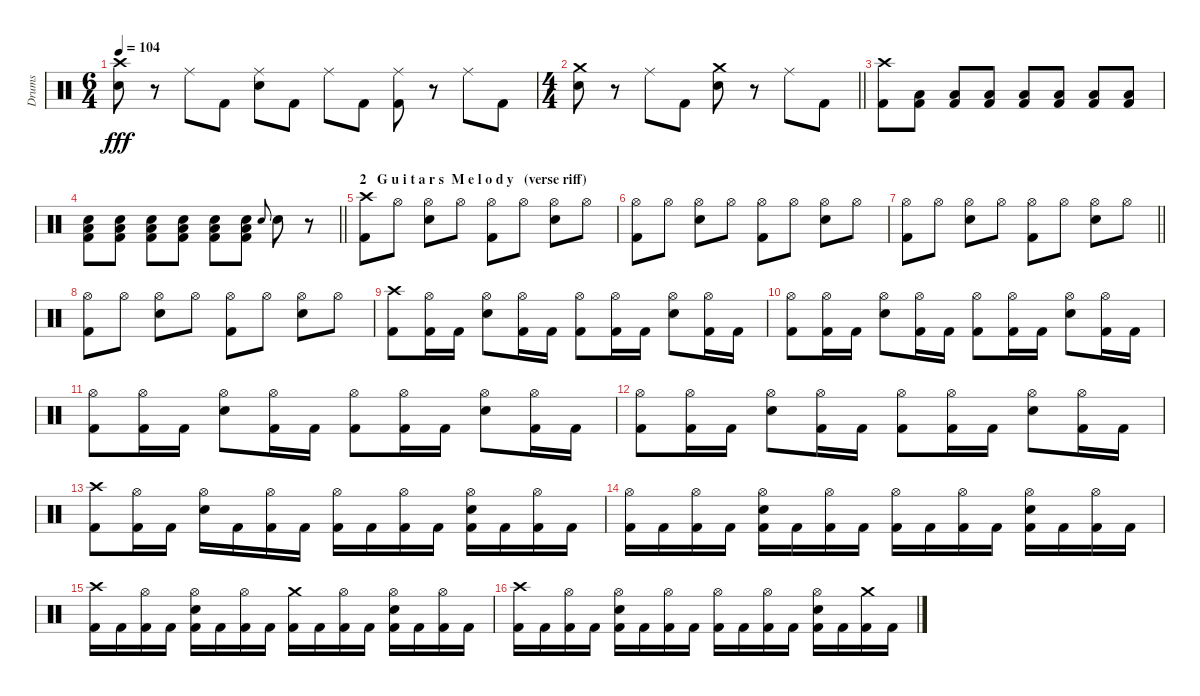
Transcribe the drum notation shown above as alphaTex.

\track ("Drums" "Drums") {instrument percussion}
\staff {score}
\articulation defaults
\ts (6 4)
\tempo 104
\clef neutral
\ks c
("Crash high (hit)" "Snare (hit) 2").8{dy fff} r.8 "Ride (middle)".8 "Kick (hit) 2".8 ("Ride (middle)" "Snare (hit) 2").8 "Kick (hit) 2".8 "Ride (middle)".8 "Kick (hit) 2".8 ("Ride (middle)" "Kick (hit) 2").8 r.8 "Ride (middle)".8 "Kick (hit) 2".8 |
\ts (4 4)
\barLineRight lightlight
("Crash medium (hit)" "Snare (hit) 2").8 r.8 "Ride (middle)".8 "Kick (hit) 2".8 ("Crash medium (hit)" "Snare (hit) 2").8 r.8 "Ride (middle)".8 "Kick (hit) 2".8 |
("Crash high (hit)" "Kick (hit) 2").8 ("Low Tom (hit)" "Kick (hit) 2").8 ("Low Tom (hit)" "Kick (hit) 2").8 ("Low Tom (hit)" "Kick (hit) 2").8 ("Low Tom (hit)" "Kick (hit) 2").8 ("Low Tom (hit)" "Kick (hit) 2").8 ("Low Tom (hit)" "Kick (hit) 2").8 ("Low Tom (hit)" "Kick (hit) 2").8 |
\barLineRight lightlight
("Snare (hit) 2" "Low Tom (hit)" "Kick (hit) 2").8 ("Snare (hit) 2" "Low Tom (hit)" "Kick (hit) 2").8 ("Snare (hit) 2" "Low Tom (hit)" "Kick (hit) 2").8 ("Snare (hit) 2" "Low Tom (hit)" "Kick (hit) 2").8 ("Snare (hit) 2" "Low Tom (hit)" "Kick (hit) 2").8 ("Snare (hit) 2" "Low Tom (hit)" "Kick (hit) 2").8 "Snare (hit) 2".8{gr onbeat} "Snare (hit) 2".8 r.8 |
\section ("" "2   G u i t a r s  M e l o d y   (verse riff)")
("Crash high (hit)" "Kick (hit) 2").8 "Hi-Hat (open)".8 ("Hi-Hat (open)" "Snare (hit) 2").8 "Hi-Hat (open)".8 ("Hi-Hat (open)" "Kick (hit) 2").8 "Hi-Hat (open)".8 ("Hi-Hat (open)" "Snare (hit) 2").8 "Hi-Hat (open)".8 |
("Hi-Hat (open)" "Kick (hit) 2").8 "Hi-Hat (open)".8 ("Hi-Hat (open)" "Snare (hit) 2").8 "Hi-Hat (open)".8 ("Hi-Hat (open)" "Kick (hit) 2").8 "Hi-Hat (open)".8 ("Hi-Hat (open)" "Snare (hit) 2").8 "Hi-Hat (open)".8 |
\barLineRight lightlight
("Hi-Hat (open)" "Kick (hit) 2").8 "Hi-Hat (open)".8 ("Hi-Hat (open)" "Snare (hit) 2").8 "Hi-Hat (open)".8 ("Hi-Hat (open)" "Kick (hit) 2").8 "Hi-Hat (open)".8 ("Hi-Hat (open)" "Snare (hit) 2").8 "Hi-Hat (open)".8 |
("Hi-Hat (open)" "Kick (hit) 2").8 "Hi-Hat (open)".8 ("Hi-Hat (open)" "Snare (hit) 2").8 "Hi-Hat (open)".8 ("Hi-Hat (open)" "Kick (hit) 2").8 "Hi-Hat (open)".8 ("Hi-Hat (open)" "Snare (hit) 2").8 "Hi-Hat (open)".8 |
("Crash high (hit)" "Kick (hit) 2").8 ("Hi-Hat (open)" "Kick (hit) 2").16 "Kick (hit) 2".16 ("Hi-Hat (open)" "Snare (hit) 2").8 ("Hi-Hat (open)" "Kick (hit) 2").16 "Kick (hit) 2".16 ("Hi-Hat (open)" "Kick (hit) 2").8 ("Hi-Hat (open)" "Kick (hit) 2").16 "Kick (hit) 2".16 ("Hi-Hat (open)" "Snare (hit) 2").8 ("Hi-Hat (open)" "Kick (hit) 2").16 "Kick (hit) 2".16 |
("Hi-Hat (open)" "Kick (hit) 2").8 ("Hi-Hat (open)" "Kick (hit) 2").16 "Kick (hit) 2".16 ("Hi-Hat (open)" "Snare (hit) 2").8 ("Hi-Hat (open)" "Kick (hit) 2").16 "Kick (hit) 2".16 ("Hi-Hat (open)" "Kick (hit) 2").8 ("Hi-Hat (open)" "Kick (hit) 2").16 "Kick (hit) 2".16 ("Hi-Hat (open)" "Snare (hit) 2").8 ("Hi-Hat (open)" "Kick (hit) 2").16 "Kick (hit) 2".16 |
("Hi-Hat (open)" "Kick (hit) 2").8 ("Hi-Hat (open)" "Kick (hit) 2").16 "Kick (hit) 2".16 ("Hi-Hat (open)" "Snare (hit) 2").8 ("Hi-Hat (open)" "Kick (hit) 2").16 "Kick (hit) 2".16 ("Hi-Hat (open)" "Kick (hit) 2").8 ("Hi-Hat (open)" "Kick (hit) 2").16 "Kick (hit) 2".16 ("Hi-Hat (open)" "Snare (hit) 2").8 ("Hi-Hat (open)" "Kick (hit) 2").16 "Kick (hit) 2".16 |
("Hi-Hat (open)" "Kick (hit) 2").8 ("Hi-Hat (open)" "Kick (hit) 2").16 "Kick (hit) 2".16 ("Hi-Hat (open)" "Snare (hit) 2").8 ("Hi-Hat (open)" "Kick (hit) 2").16 "Kick (hit) 2".16 ("Hi-Hat (open)" "Kick (hit) 2").8 ("Hi-Hat (open)" "Kick (hit) 2").16 "Kick (hit) 2".16 ("Hi-Hat (open)" "Snare (hit) 2").8 ("Hi-Hat (open)" "Kick (hit) 2").16 "Kick (hit) 2".16 |
("Crash high (hit)" "Kick (hit) 2").8 ("Hi-Hat (open)" "Kick (hit) 2").16 "Kick (hit) 2".16 ("Hi-Hat (open)" "Snare (hit) 2").16 "Kick (hit) 2".16 ("Hi-Hat (open)" "Kick (hit) 2").16 "Kick (hit) 2".16 ("Hi-Hat (open)" "Kick (hit) 2").16 "Kick (hit) 2".16 ("Hi-Hat (open)" "Kick (hit) 2").16 "Kick (hit) 2".16 ("Hi-Hat (open)" "Snare (hit) 2" "Kick (hit) 2").16 "Kick (hit) 2".16 ("Hi-Hat (open)" "Kick (hit) 2").16 "Kick (hit) 2".16 |
("Hi-Hat (open)" "Kick (hit) 2").16 "Kick (hit) 2".16 ("Hi-Hat (open)" "Kick (hit) 2").16 "Kick (hit) 2".16 ("Hi-Hat (open)" "Snare (hit) 2" "Kick (hit) 2").16 "Kick (hit) 2".16 ("Hi-Hat (open)" "Kick (hit) 2").16 "Kick (hit) 2".16 ("Hi-Hat (open)" "Kick (hit) 2").16 "Kick (hit) 2".16 ("Hi-Hat (open)" "Kick (hit) 2").16 "Kick (hit) 2".16 ("Hi-Hat (open)" "Snare (hit) 2" "Kick (hit) 2").16 "Kick (hit) 2".16 ("Hi-Hat (open)" "Kick (hit) 2").16 "Kick (hit) 2".16 |
("Crash high (hit)" "Kick (hit) 2").16 "Kick (hit) 2".16 ("Hi-Hat (open)" "Kick (hit) 2").16 "Kick (hit) 2".16 ("Hi-Hat (open)" "Snare (hit) 2" "Kick (hit) 2").16 "Kick (hit) 2".16 ("Hi-Hat (open)" "Kick (hit) 2").16 "Kick (hit) 2".16 ("Crash medium (hit)" "Kick (hit) 2").16 "Kick (hit) 2".16 ("Hi-Hat (open)" "Kick (hit) 2").16 "Kick (hit) 2".16 ("Hi-Hat (open)" "Snare (hit) 2" "Kick (hit) 2").16 "Kick (hit) 2".16 ("Hi-Hat (open)" "Kick (hit) 2").16 "Kick (hit) 2".16 |
("Crash high (hit)" "Kick (hit) 2").16 "Kick (hit) 2".16 ("Hi-Hat (open)" "Kick (hit) 2").16 "Kick (hit) 2".16 ("Hi-Hat (open)" "Snare (hit) 2" "Kick (hit) 2").16 "Kick (hit) 2".16 ("Hi-Hat (open)" "Kick (hit) 2").16 "Kick (hit) 2".16 ("Hi-Hat (open)" "Kick (hit) 2").16 "Kick (hit) 2".16 ("Hi-Hat (open)" "Kick (hit) 2").16 "Kick (hit) 2".16 ("Hi-Hat (open)" "Snare (hit) 2" "Kick (hit) 2").16 "Kick (hit) 2".16 ("Crash medium (hit)" "Kick (hit) 2").16 "Kick (hit) 2".16
